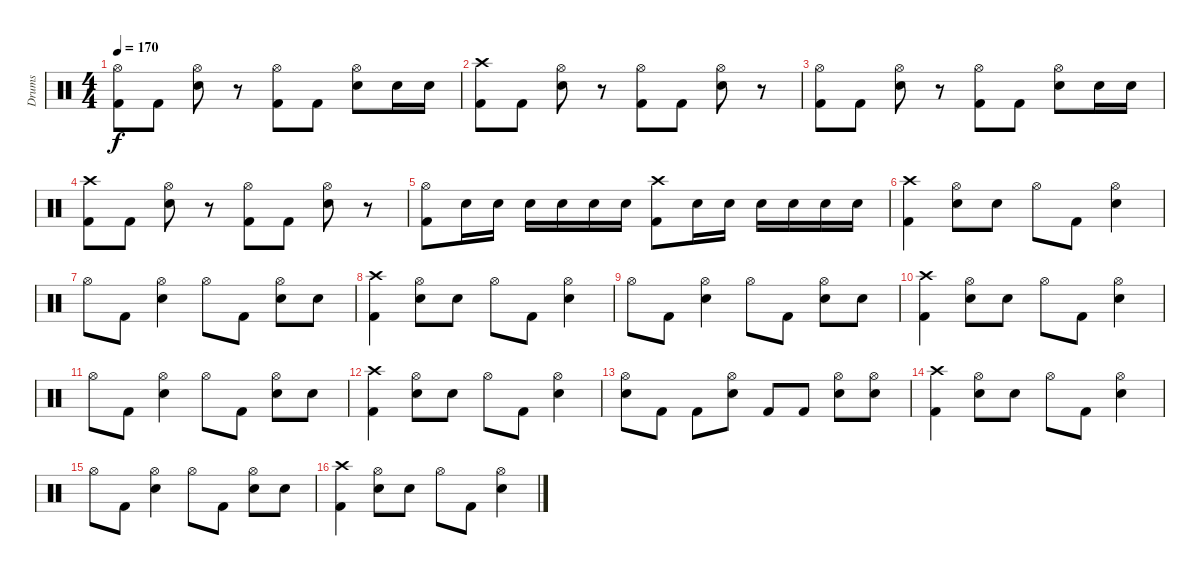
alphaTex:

\track ("Drums" "Drums") {instrument percussion}
\staff {score}
\articulation defaults
\ts (4 4)
\tempo 170
\clef neutral
\ks c
("Hi-Hat (open)" "Kick (hit) 2").8{dy f} "Kick (hit) 2".8 ("Hi-Hat (open)" "Electric Snare (hit)").8 r.8 ("Hi-Hat (open)" "Kick (hit) 2").8 "Kick (hit) 2".8 ("Hi-Hat (open)" "Electric Snare (hit)").8 "Electric Snare (hit)".16 "Electric Snare (hit)".16 |
("Crash high (hit)" "Kick (hit) 2").8 "Kick (hit) 2".8 ("Hi-Hat (open)" "Electric Snare (hit)").8 r.8 ("Hi-Hat (open)" "Kick (hit) 2").8 "Kick (hit) 2".8 ("Hi-Hat (open)" "Electric Snare (hit)").8 r.8 |
("Hi-Hat (open)" "Kick (hit) 2").8 "Kick (hit) 2".8 ("Hi-Hat (open)" "Electric Snare (hit)").8 r.8 ("Hi-Hat (open)" "Kick (hit) 2").8 "Kick (hit) 2".8 ("Hi-Hat (open)" "Electric Snare (hit)").8 "Electric Snare (hit)".16 "Electric Snare (hit)".16 |
("Crash high (hit)" "Kick (hit) 2").8 "Kick (hit) 2".8 ("Hi-Hat (open)" "Electric Snare (hit)").8 r.8 ("Hi-Hat (open)" "Kick (hit) 2").8 "Kick (hit) 2".8 ("Hi-Hat (open)" "Electric Snare (hit)").8 r.8 |
("Hi-Hat (open)" "Kick (hit) 2").8 "Electric Snare (hit)".16 "Electric Snare (hit)".16 "Electric Snare (hit)".16 "Electric Snare (hit)".16 "Electric Snare (hit)".16 "Electric Snare (hit)".16 ("Crash high (hit)" "Kick (hit) 2").8 "Electric Snare (hit)".16 "Electric Snare (hit)".16 "Electric Snare (hit)".16 "Electric Snare (hit)".16 "Electric Snare (hit)".16 "Electric Snare (hit)".16 |
("Crash high (hit)" "Kick (hit) 2").4 ("Hi-Hat (open)" "Electric Snare (hit)").8 "Electric Snare (hit)".8 "Hi-Hat (open)".8 "Kick (hit) 2".8 ("Hi-Hat (open)" "Electric Snare (hit)").4 |
"Hi-Hat (open)".8 "Kick (hit) 2".8 ("Hi-Hat (open)" "Electric Snare (hit)").4 "Hi-Hat (open)".8 "Kick (hit) 2".8 ("Hi-Hat (open)" "Electric Snare (hit)").8 "Electric Snare (hit)".8 |
("Crash high (hit)" "Kick (hit) 2").4 ("Hi-Hat (open)" "Electric Snare (hit)").8 "Electric Snare (hit)".8 "Hi-Hat (open)".8 "Kick (hit) 2".8 ("Hi-Hat (open)" "Electric Snare (hit)").4 |
"Hi-Hat (open)".8 "Kick (hit) 2".8 ("Hi-Hat (open)" "Electric Snare (hit)").4 "Hi-Hat (open)".8 "Kick (hit) 2".8 ("Hi-Hat (open)" "Electric Snare (hit)").8 "Electric Snare (hit)".8 |
("Crash high (hit)" "Kick (hit) 2").4 ("Hi-Hat (open)" "Electric Snare (hit)").8 "Electric Snare (hit)".8 "Hi-Hat (open)".8 "Kick (hit) 2".8 ("Hi-Hat (open)" "Electric Snare (hit)").4 |
"Hi-Hat (open)".8 "Kick (hit) 2".8 ("Hi-Hat (open)" "Electric Snare (hit)").4 "Hi-Hat (open)".8 "Kick (hit) 2".8 ("Hi-Hat (open)" "Electric Snare (hit)").8 "Electric Snare (hit)".8 |
("Crash high (hit)" "Kick (hit) 2").4 ("Hi-Hat (open)" "Electric Snare (hit)").8 "Electric Snare (hit)".8 "Hi-Hat (open)".8 "Kick (hit) 2".8 ("Hi-Hat (open)" "Electric Snare (hit)").4 |
("Hi-Hat (open)" "Electric Snare (hit)").8 "Kick (hit) 2".8 "Kick (hit) 2".8 ("Hi-Hat (open)" "Electric Snare (hit)").8 "Kick (hit) 2".8 "Kick (hit) 2".8 ("Hi-Hat (open)" "Electric Snare (hit)").8 ("Hi-Hat (open)" "Electric Snare (hit)").8 |
("Crash high (hit)" "Kick (hit) 2").4 ("Hi-Hat (open)" "Electric Snare (hit)").8 "Electric Snare (hit)".8 "Hi-Hat (open)".8 "Kick (hit) 2".8 ("Hi-Hat (open)" "Electric Snare (hit)").4 |
"Hi-Hat (open)".8 "Kick (hit) 2".8 ("Hi-Hat (open)" "Electric Snare (hit)").4 "Hi-Hat (open)".8 "Kick (hit) 2".8 ("Hi-Hat (open)" "Electric Snare (hit)").8 "Electric Snare (hit)".8 |
("Crash high (hit)" "Kick (hit) 2").4 ("Hi-Hat (open)" "Electric Snare (hit)").8 "Electric Snare (hit)".8 "Hi-Hat (open)".8 "Kick (hit) 2".8 ("Hi-Hat (open)" "Electric Snare (hit)").4
